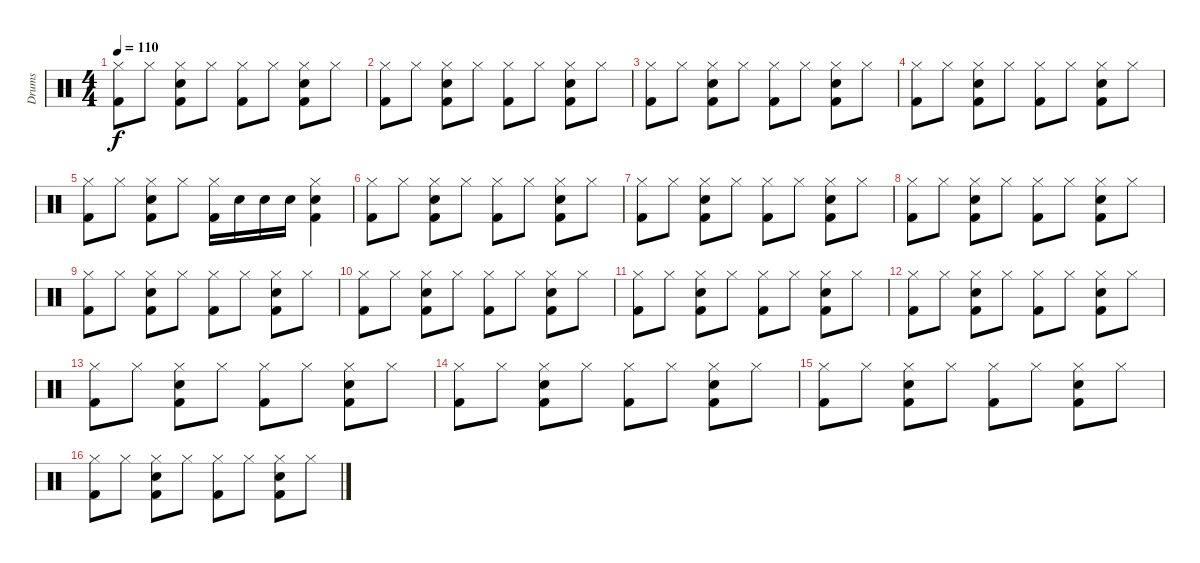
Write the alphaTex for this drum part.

\track ("Drums" "Drums") {instrument percussion}
\staff {score}
\articulation defaults
\ts (4 4)
\tempo 110
\clef neutral
\ks c
("Hi-Hat (closed)" "Kick (hit) 2").8{dy f} "Hi-Hat (closed)".8 ("Hi-Hat (closed)" "Snare (hit) 2" "Kick (hit) 2").8 "Hi-Hat (closed)".8 ("Hi-Hat (closed)" "Kick (hit) 2").8 "Hi-Hat (closed)".8 ("Hi-Hat (closed)" "Snare (hit) 2" "Kick (hit) 2").8 "Hi-Hat (closed)".8 |
("Hi-Hat (closed)" "Kick (hit) 2").8 "Hi-Hat (closed)".8 ("Hi-Hat (closed)" "Snare (hit) 2" "Kick (hit) 2").8 "Hi-Hat (closed)".8 ("Hi-Hat (closed)" "Kick (hit) 2").8 "Hi-Hat (closed)".8 ("Hi-Hat (closed)" "Snare (hit) 2" "Kick (hit) 2").8 "Hi-Hat (closed)".8 |
("Hi-Hat (closed)" "Kick (hit) 2").8 "Hi-Hat (closed)".8 ("Hi-Hat (closed)" "Snare (hit) 2" "Kick (hit) 2").8 "Hi-Hat (closed)".8 ("Hi-Hat (closed)" "Kick (hit) 2").8 "Hi-Hat (closed)".8 ("Hi-Hat (closed)" "Snare (hit) 2" "Kick (hit) 2").8 "Hi-Hat (closed)".8 |
("Hi-Hat (closed)" "Kick (hit) 2").8 "Hi-Hat (closed)".8 ("Hi-Hat (closed)" "Snare (hit) 2" "Kick (hit) 2").8 "Hi-Hat (closed)".8 ("Hi-Hat (closed)" "Kick (hit) 2").8 "Hi-Hat (closed)".8 ("Hi-Hat (closed)" "Snare (hit) 2" "Kick (hit) 2").8 "Hi-Hat (closed)".8 |
("Hi-Hat (closed)" "Kick (hit) 2").8 "Hi-Hat (closed)".8 ("Hi-Hat (closed)" "Snare (hit) 2" "Kick (hit) 2").8 "Hi-Hat (closed)".8 ("Hi-Hat (closed)" "Kick (hit) 2").16 "Snare (hit) 2".16 "Snare (hit) 2".16 "Snare (hit) 2".16 ("Hi-Hat (closed)" "Snare (hit) 2" "Kick (hit) 2").4 |
("Hi-Hat (closed)" "Kick (hit) 2").8 "Hi-Hat (closed)".8 ("Hi-Hat (closed)" "Snare (hit) 2" "Kick (hit) 2").8 "Hi-Hat (closed)".8 ("Hi-Hat (closed)" "Kick (hit) 2").8 "Hi-Hat (closed)".8 ("Hi-Hat (closed)" "Snare (hit) 2" "Kick (hit) 2").8 "Hi-Hat (closed)".8 |
("Hi-Hat (closed)" "Kick (hit) 2").8 "Hi-Hat (closed)".8 ("Hi-Hat (closed)" "Snare (hit) 2" "Kick (hit) 2").8 "Hi-Hat (closed)".8 ("Hi-Hat (closed)" "Kick (hit) 2").8 "Hi-Hat (closed)".8 ("Hi-Hat (closed)" "Snare (hit) 2" "Kick (hit) 2").8 "Hi-Hat (closed)".8 |
("Hi-Hat (closed)" "Kick (hit) 2").8 "Hi-Hat (closed)".8 ("Hi-Hat (closed)" "Snare (hit) 2" "Kick (hit) 2").8 "Hi-Hat (closed)".8 ("Hi-Hat (closed)" "Kick (hit) 2").8 "Hi-Hat (closed)".8 ("Hi-Hat (closed)" "Snare (hit) 2" "Kick (hit) 2").8 "Hi-Hat (closed)".8 |
("Hi-Hat (closed)" "Kick (hit) 2").8 "Hi-Hat (closed)".8 ("Hi-Hat (closed)" "Snare (hit) 2" "Kick (hit) 2").8 "Hi-Hat (closed)".8 ("Hi-Hat (closed)" "Kick (hit) 2").8 "Hi-Hat (closed)".8 ("Hi-Hat (closed)" "Snare (hit) 2" "Kick (hit) 2").8 "Hi-Hat (closed)".8 |
("Hi-Hat (closed)" "Kick (hit) 2").8 "Hi-Hat (closed)".8 ("Hi-Hat (closed)" "Snare (hit) 2" "Kick (hit) 2").8 "Hi-Hat (closed)".8 ("Hi-Hat (closed)" "Kick (hit) 2").8 "Hi-Hat (closed)".8 ("Hi-Hat (closed)" "Snare (hit) 2" "Kick (hit) 2").8 "Hi-Hat (closed)".8 |
("Hi-Hat (closed)" "Kick (hit) 2").8 "Hi-Hat (closed)".8 ("Hi-Hat (closed)" "Snare (hit) 2" "Kick (hit) 2").8 "Hi-Hat (closed)".8 ("Hi-Hat (closed)" "Kick (hit) 2").8 "Hi-Hat (closed)".8 ("Hi-Hat (closed)" "Snare (hit) 2" "Kick (hit) 2").8 "Hi-Hat (closed)".8 |
("Hi-Hat (closed)" "Kick (hit) 2").8 "Hi-Hat (closed)".8 ("Hi-Hat (closed)" "Snare (hit) 2" "Kick (hit) 2").8 "Hi-Hat (closed)".8 ("Hi-Hat (closed)" "Kick (hit) 2").8 "Hi-Hat (closed)".8 ("Hi-Hat (closed)" "Snare (hit) 2" "Kick (hit) 2").8 "Hi-Hat (closed)".8 |
("Hi-Hat (closed)" "Kick (hit) 2").8 "Hi-Hat (closed)".8 ("Hi-Hat (closed)" "Snare (hit) 2" "Kick (hit) 2").8 "Hi-Hat (closed)".8 ("Hi-Hat (closed)" "Kick (hit) 2").8 "Hi-Hat (closed)".8 ("Hi-Hat (closed)" "Snare (hit) 2" "Kick (hit) 2").8 "Hi-Hat (closed)".8 |
("Hi-Hat (closed)" "Kick (hit) 2").8 "Hi-Hat (closed)".8 ("Hi-Hat (closed)" "Snare (hit) 2" "Kick (hit) 2").8 "Hi-Hat (closed)".8 ("Hi-Hat (closed)" "Kick (hit) 2").8 "Hi-Hat (closed)".8 ("Hi-Hat (closed)" "Snare (hit) 2" "Kick (hit) 2").8 "Hi-Hat (closed)".8 |
("Hi-Hat (closed)" "Kick (hit) 2").8 "Hi-Hat (closed)".8 ("Hi-Hat (closed)" "Snare (hit) 2" "Kick (hit) 2").8 "Hi-Hat (closed)".8 ("Hi-Hat (closed)" "Kick (hit) 2").8 "Hi-Hat (closed)".8 ("Hi-Hat (closed)" "Snare (hit) 2" "Kick (hit) 2").8 "Hi-Hat (closed)".8 |
("Hi-Hat (closed)" "Kick (hit) 2").8 "Hi-Hat (closed)".8 ("Hi-Hat (closed)" "Snare (hit) 2" "Kick (hit) 2").8 "Hi-Hat (closed)".8 ("Hi-Hat (closed)" "Kick (hit) 2").8 "Hi-Hat (closed)".8 ("Hi-Hat (closed)" "Snare (hit) 2" "Kick (hit) 2").8 "Hi-Hat (closed)".8
